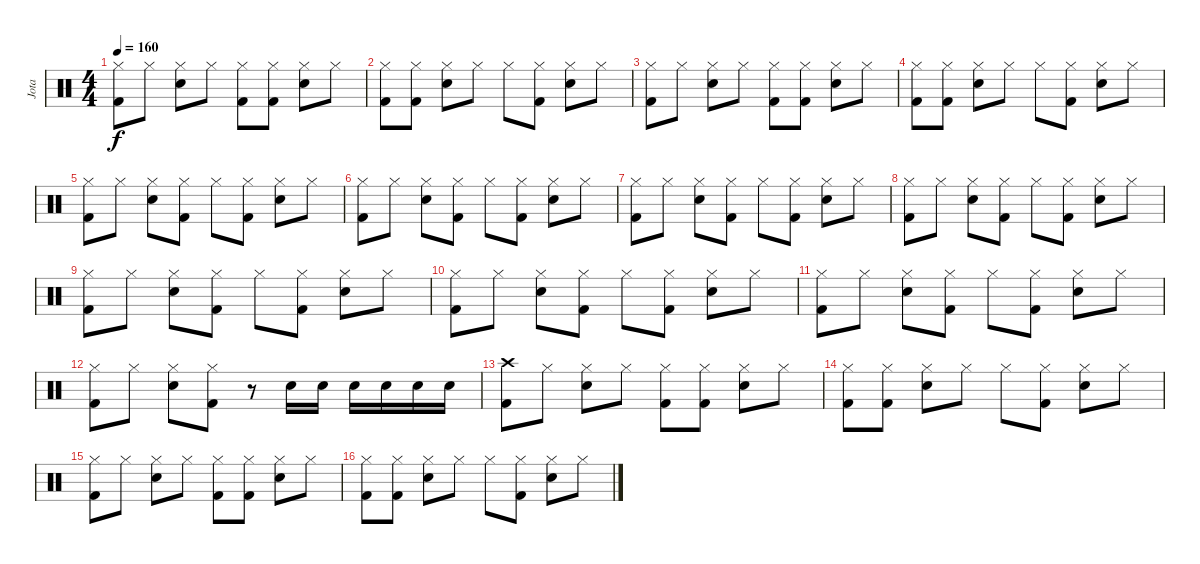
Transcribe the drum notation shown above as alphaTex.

\track ("Jota" "Jota") {instrument percussion}
\staff {score}
\articulation defaults
\ts (4 4)
\tempo 160
\clef neutral
\ks c
("Hi-Hat (closed)" "Kick (hit) 2").8{dy f} "Hi-Hat (closed)".8 ("Hi-Hat (closed)" "Electric Snare (hit)").8 "Hi-Hat (closed)".8 ("Hi-Hat (closed)" "Kick (hit) 2").8 ("Hi-Hat (closed)" "Kick (hit) 2").8 ("Hi-Hat (closed)" "Electric Snare (hit)").8 "Hi-Hat (closed)".8 |
("Hi-Hat (closed)" "Kick (hit) 2").8 ("Hi-Hat (closed)" "Kick (hit) 2").8 ("Hi-Hat (closed)" "Electric Snare (hit)").8 "Hi-Hat (closed)".8 "Hi-Hat (closed)".8 ("Hi-Hat (closed)" "Kick (hit) 2").8 ("Hi-Hat (closed)" "Electric Snare (hit)").8 "Hi-Hat (closed)".8 |
("Hi-Hat (closed)" "Kick (hit) 2").8 "Hi-Hat (closed)".8 ("Hi-Hat (closed)" "Electric Snare (hit)").8 "Hi-Hat (closed)".8 ("Hi-Hat (closed)" "Kick (hit) 2").8 ("Hi-Hat (closed)" "Kick (hit) 2").8 ("Hi-Hat (closed)" "Electric Snare (hit)").8 "Hi-Hat (closed)".8 |
("Hi-Hat (closed)" "Kick (hit) 2").8 ("Hi-Hat (closed)" "Kick (hit) 2").8 ("Hi-Hat (closed)" "Electric Snare (hit)").8 "Hi-Hat (closed)".8 "Hi-Hat (closed)".8 ("Hi-Hat (closed)" "Kick (hit) 2").8 ("Hi-Hat (closed)" "Electric Snare (hit)").8 "Hi-Hat (closed)".8 |
("Hi-Hat (closed)" "Kick (hit) 2").8 "Hi-Hat (closed)".8 ("Hi-Hat (closed)" "Electric Snare (hit)").8 ("Hi-Hat (closed)" "Kick (hit) 2").8 "Hi-Hat (closed)".8 ("Hi-Hat (closed)" "Kick (hit) 2").8 ("Hi-Hat (closed)" "Electric Snare (hit)").8 "Hi-Hat (closed)".8 |
("Hi-Hat (closed)" "Kick (hit) 2").8 "Hi-Hat (closed)".8 ("Hi-Hat (closed)" "Electric Snare (hit)").8 ("Hi-Hat (closed)" "Kick (hit) 2").8 "Hi-Hat (closed)".8 ("Hi-Hat (closed)" "Kick (hit) 2").8 ("Hi-Hat (closed)" "Electric Snare (hit)").8 "Hi-Hat (closed)".8 |
("Hi-Hat (closed)" "Kick (hit) 2").8 "Hi-Hat (closed)".8 ("Hi-Hat (closed)" "Electric Snare (hit)").8 ("Hi-Hat (closed)" "Kick (hit) 2").8 "Hi-Hat (closed)".8 ("Hi-Hat (closed)" "Kick (hit) 2").8 ("Hi-Hat (closed)" "Electric Snare (hit)").8 "Hi-Hat (closed)".8 |
("Hi-Hat (closed)" "Kick (hit) 2").8 "Hi-Hat (closed)".8 ("Hi-Hat (closed)" "Electric Snare (hit)").8 ("Hi-Hat (closed)" "Kick (hit) 2").8 "Hi-Hat (closed)".8 ("Hi-Hat (closed)" "Kick (hit) 2").8 ("Hi-Hat (closed)" "Electric Snare (hit)").8 "Hi-Hat (closed)".8 |
("Hi-Hat (closed)" "Kick (hit) 2").8 "Hi-Hat (closed)".8 ("Hi-Hat (closed)" "Electric Snare (hit)").8 ("Hi-Hat (closed)" "Kick (hit) 2").8 "Hi-Hat (closed)".8 ("Hi-Hat (closed)" "Kick (hit) 2").8 ("Hi-Hat (closed)" "Electric Snare (hit)").8 "Hi-Hat (closed)".8 |
("Hi-Hat (closed)" "Kick (hit) 2").8 "Hi-Hat (closed)".8 ("Hi-Hat (closed)" "Electric Snare (hit)").8 ("Hi-Hat (closed)" "Kick (hit) 2").8 "Hi-Hat (closed)".8 ("Hi-Hat (closed)" "Kick (hit) 2").8 ("Hi-Hat (closed)" "Electric Snare (hit)").8 "Hi-Hat (closed)".8 |
("Hi-Hat (closed)" "Kick (hit) 2").8 "Hi-Hat (closed)".8 ("Hi-Hat (closed)" "Electric Snare (hit)").8 ("Hi-Hat (closed)" "Kick (hit) 2").8 "Hi-Hat (closed)".8 ("Hi-Hat (closed)" "Kick (hit) 2").8 ("Hi-Hat (closed)" "Electric Snare (hit)").8 "Hi-Hat (closed)".8 |
("Hi-Hat (closed)" "Kick (hit) 2").8 "Hi-Hat (closed)".8 ("Hi-Hat (closed)" "Electric Snare (hit)").8 ("Hi-Hat (closed)" "Kick (hit) 2").8 r.8 "Electric Snare (hit)".16 "Electric Snare (hit)".16 "Electric Snare (hit)".16 "Electric Snare (hit)".16 "Electric Snare (hit)".16 "Electric Snare (hit)".16 |
("Crash high (hit)" "Kick (hit) 2").8 "Hi-Hat (closed)".8 ("Hi-Hat (closed)" "Electric Snare (hit)").8 "Hi-Hat (closed)".8 ("Hi-Hat (closed)" "Kick (hit) 2").8 ("Hi-Hat (closed)" "Kick (hit) 2").8 ("Hi-Hat (closed)" "Electric Snare (hit)").8 "Hi-Hat (closed)".8 |
("Hi-Hat (closed)" "Kick (hit) 2").8 ("Hi-Hat (closed)" "Kick (hit) 2").8 ("Hi-Hat (closed)" "Electric Snare (hit)").8 "Hi-Hat (closed)".8 "Hi-Hat (closed)".8 ("Hi-Hat (closed)" "Kick (hit) 2").8 ("Hi-Hat (closed)" "Electric Snare (hit)").8 "Hi-Hat (closed)".8 |
("Hi-Hat (closed)" "Kick (hit) 2").8 "Hi-Hat (closed)".8 ("Hi-Hat (closed)" "Electric Snare (hit)").8 "Hi-Hat (closed)".8 ("Hi-Hat (closed)" "Kick (hit) 2").8 ("Hi-Hat (closed)" "Kick (hit) 2").8 ("Hi-Hat (closed)" "Electric Snare (hit)").8 "Hi-Hat (closed)".8 |
("Hi-Hat (closed)" "Kick (hit) 2").8 ("Hi-Hat (closed)" "Kick (hit) 2").8 ("Hi-Hat (closed)" "Electric Snare (hit)").8 "Hi-Hat (closed)".8 "Hi-Hat (closed)".8 ("Hi-Hat (closed)" "Kick (hit) 2").8 ("Hi-Hat (closed)" "Electric Snare (hit)").8 "Hi-Hat (closed)".8
